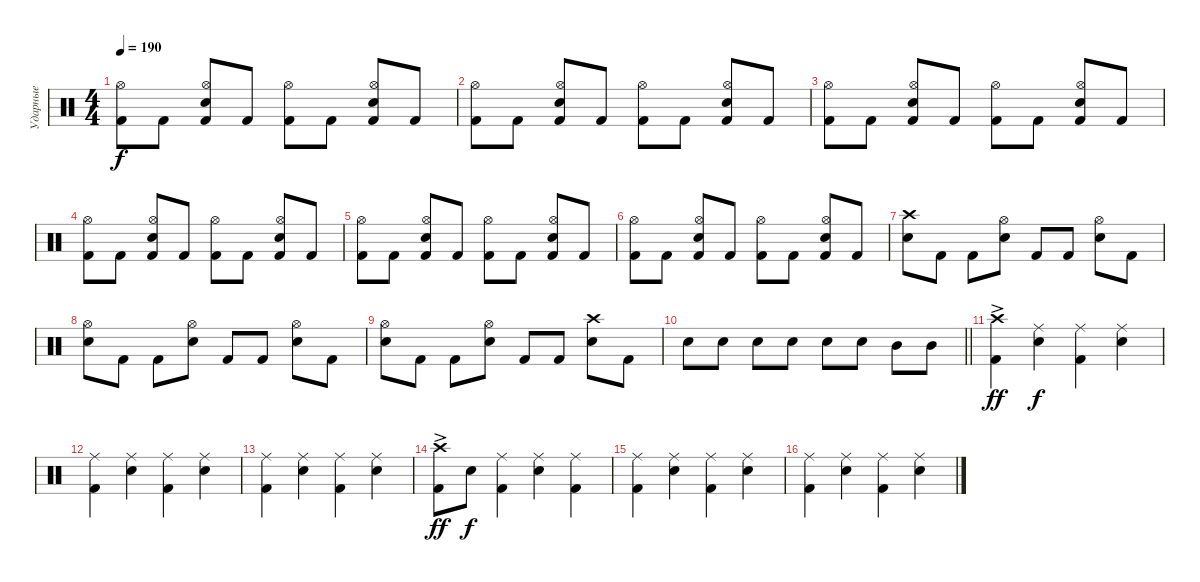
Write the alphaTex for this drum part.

\track ("Ударные" "Ударные") {instrument percussion}
\staff
\articulation defaults
\ts (4 4)
\tempo 190
\clef neutral
\ks c
("Kick (hit) 2" "Hi-Hat (open)").8{dy f} "Kick (hit) 2".8 ("Kick (hit) 2" "Snare (hit) 2" "Hi-Hat (open)").8 "Kick (hit) 2".8 ("Kick (hit) 2" "Hi-Hat (open)").8 "Kick (hit) 2".8 ("Kick (hit) 2" "Snare (hit) 2" "Hi-Hat (open)").8 "Kick (hit) 2".8 |
("Kick (hit) 2" "Hi-Hat (open)").8 "Kick (hit) 2".8 ("Kick (hit) 2" "Snare (hit) 2" "Hi-Hat (open)").8 "Kick (hit) 2".8 ("Kick (hit) 2" "Hi-Hat (open)").8 "Kick (hit) 2".8 ("Kick (hit) 2" "Snare (hit) 2" "Hi-Hat (open)").8 "Kick (hit) 2".8 |
("Kick (hit) 2" "Hi-Hat (open)").8 "Kick (hit) 2".8 ("Kick (hit) 2" "Snare (hit) 2" "Hi-Hat (open)").8 "Kick (hit) 2".8 ("Kick (hit) 2" "Hi-Hat (open)").8 "Kick (hit) 2".8 ("Kick (hit) 2" "Snare (hit) 2" "Hi-Hat (open)").8 "Kick (hit) 2".8 |
("Kick (hit) 2" "Hi-Hat (open)").8 "Kick (hit) 2".8 ("Kick (hit) 2" "Snare (hit) 2" "Hi-Hat (open)").8 "Kick (hit) 2".8 ("Kick (hit) 2" "Hi-Hat (open)").8 "Kick (hit) 2".8 ("Kick (hit) 2" "Snare (hit) 2" "Hi-Hat (open)").8 "Kick (hit) 2".8 |
("Kick (hit) 2" "Hi-Hat (open)").8 "Kick (hit) 2".8 ("Kick (hit) 2" "Snare (hit) 2" "Hi-Hat (open)").8 "Kick (hit) 2".8 ("Kick (hit) 2" "Hi-Hat (open)").8 "Kick (hit) 2".8 ("Kick (hit) 2" "Snare (hit) 2" "Hi-Hat (open)").8 "Kick (hit) 2".8 |
("Kick (hit) 2" "Hi-Hat (open)").8 "Kick (hit) 2".8 ("Kick (hit) 2" "Snare (hit) 2" "Hi-Hat (open)").8 "Kick (hit) 2".8 ("Kick (hit) 2" "Hi-Hat (open)").8 "Kick (hit) 2".8 ("Kick (hit) 2" "Snare (hit) 2" "Hi-Hat (open)").8 "Kick (hit) 2".8 |
("Snare (hit) 2" "Crash high (hit)").8 "Kick (hit) 2".8 "Kick (hit) 2".8 ("Snare (hit) 2" "Hi-Hat (open)").8 "Kick (hit) 2".8 "Kick (hit) 2".8 ("Snare (hit) 2" "Hi-Hat (open)").8 "Kick (hit) 2".8 |
("Snare (hit) 2" "Hi-Hat (open)").8 "Kick (hit) 2".8 "Kick (hit) 2".8 ("Snare (hit) 2" "Hi-Hat (open)").8 "Kick (hit) 2".8 "Kick (hit) 2".8 ("Snare (hit) 2" "Hi-Hat (open)").8 "Kick (hit) 2".8 |
("Snare (hit) 2" "Hi-Hat (open)").8 "Kick (hit) 2".8 "Kick (hit) 2".8 ("Snare (hit) 2" "Hi-Hat (open)").8 "Kick (hit) 2".8 "Kick (hit) 2".8 ("Snare (hit) 2" "Crash high (hit)").8 "Kick (hit) 2".8 |
\barLineRight lightlight "Snare (hit) 2".8 "Electric Snare (hit)".8 "Electric Snare (hit)".8 "Snare (hit) 2".8 "Electric Snare (hit)".8 "Electric Snare (hit)".8 "Mid Tom (hit)".8 "Mid Tom (hit)".8
|
("Kick (hit) 2" "Crash high (hit)"{ac}).4{dy ff} ("Snare (hit) 2" "Ride (middle)").4{dy f} ("Kick (hit) 2" "Ride (middle)").4 ("Snare (hit) 2" "Ride (middle)").4 |
("Kick (hit) 2" "Ride (middle)").4 ("Snare (hit) 2" "Ride (middle)").4 ("Kick (hit) 2" "Ride (middle)").4 ("Snare (hit) 2" "Ride (middle)").4 |
("Kick (hit) 2" "Ride (middle)").4 ("Snare (hit) 2" "Ride (middle)").4 ("Kick (hit) 2" "Ride (middle)").4 ("Snare (hit) 2" "Ride (middle)").4 |
("Kick (hit) 2" "Crash high (hit)"{ac}).8{dy ff} "Snare (hit) 2".8{dy f} ("Kick (hit) 2" "Ride (middle)").4 ("Snare (hit) 2" "Ride (middle)").4 ("Kick (hit) 2" "Ride (middle)").4 |
("Kick (hit) 2" "Ride (middle)").4 ("Snare (hit) 2" "Ride (middle)").4 ("Kick (hit) 2" "Ride (middle)").4 ("Snare (hit) 2" "Ride (middle)").4 |
("Kick (hit) 2" "Ride (middle)").4 ("Snare (hit) 2" "Ride (middle)").4 ("Kick (hit) 2" "Ride (middle)").4 ("Snare (hit) 2" "Ride (middle)").4
